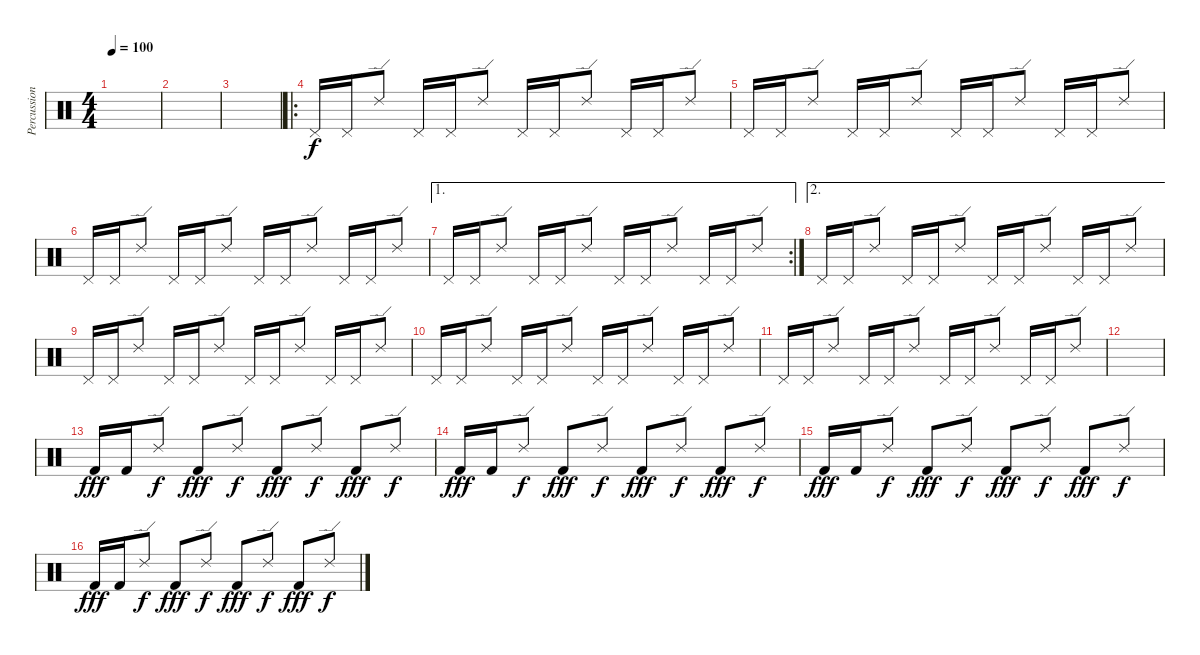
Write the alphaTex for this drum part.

\track ("Percussion" "Percussion") {instrument percussion}
\staff {score}
\articulation defaults
\ts (4 4)
\tempo 100
\clef neutral
\ks c
|
|
|
\ro "Pedal Hi-Hat (hit)".16 "Pedal Hi-Hat (hit)".16 "Ride (edge) 2".8 "Pedal Hi-Hat (hit)".16 "Pedal Hi-Hat (hit)".16 "Ride (edge) 2".8 "Pedal Hi-Hat (hit)".16 "Pedal Hi-Hat (hit)".16 "Ride (edge) 2".8 "Pedal Hi-Hat (hit)".16 "Pedal Hi-Hat (hit)".16 "Ride (edge) 2".8
|
"Pedal Hi-Hat (hit)".16 "Pedal Hi-Hat (hit)".16 "Ride (edge) 2".8 "Pedal Hi-Hat (hit)".16 "Pedal Hi-Hat (hit)".16 "Ride (edge) 2".8 "Pedal Hi-Hat (hit)".16 "Pedal Hi-Hat (hit)".16 "Ride (edge) 2".8 "Pedal Hi-Hat (hit)".16 "Pedal Hi-Hat (hit)".16 "Ride (edge) 2".8 |
"Pedal Hi-Hat (hit)".16 "Pedal Hi-Hat (hit)".16 "Ride (edge) 2".8 "Pedal Hi-Hat (hit)".16 "Pedal Hi-Hat (hit)".16 "Ride (edge) 2".8 "Pedal Hi-Hat (hit)".16 "Pedal Hi-Hat (hit)".16 "Ride (edge) 2".8 "Pedal Hi-Hat (hit)".16 "Pedal Hi-Hat (hit)".16 "Ride (edge) 2".8 |
\ae 1
\rc 2 "Pedal Hi-Hat (hit)".16 "Pedal Hi-Hat (hit)".16 "Ride (edge) 2".8 "Pedal Hi-Hat (hit)".16 "Pedal Hi-Hat (hit)".16 "Ride (edge) 2".8 "Pedal Hi-Hat (hit)".16 "Pedal Hi-Hat (hit)".16 "Ride (edge) 2".8 "Pedal Hi-Hat (hit)".16 "Pedal Hi-Hat (hit)".16 "Ride (edge) 2".8
|
\ae 2 "Pedal Hi-Hat (hit)".16 "Pedal Hi-Hat (hit)".16 "Ride (edge) 2".8 "Pedal Hi-Hat (hit)".16 "Pedal Hi-Hat (hit)".16 "Ride (edge) 2".8 "Pedal Hi-Hat (hit)".16 "Pedal Hi-Hat (hit)".16 "Ride (edge) 2".8 "Pedal Hi-Hat (hit)".16 "Pedal Hi-Hat (hit)".16 "Ride (edge) 2".8
|
"Pedal Hi-Hat (hit)".16 "Pedal Hi-Hat (hit)".16 "Ride (edge) 2".8 "Pedal Hi-Hat (hit)".16 "Pedal Hi-Hat (hit)".16 "Ride (edge) 2".8 "Pedal Hi-Hat (hit)".16 "Pedal Hi-Hat (hit)".16 "Ride (edge) 2".8 "Pedal Hi-Hat (hit)".16 "Pedal Hi-Hat (hit)".16 "Ride (edge) 2".8 |
"Pedal Hi-Hat (hit)".16 "Pedal Hi-Hat (hit)".16 "Ride (edge) 2".8 "Pedal Hi-Hat (hit)".16 "Pedal Hi-Hat (hit)".16 "Ride (edge) 2".8 "Pedal Hi-Hat (hit)".16 "Pedal Hi-Hat (hit)".16 "Ride (edge) 2".8 "Pedal Hi-Hat (hit)".16 "Pedal Hi-Hat (hit)".16 "Ride (edge) 2".8 |
"Pedal Hi-Hat (hit)".16 "Pedal Hi-Hat (hit)".16 "Ride (edge) 2".8 "Pedal Hi-Hat (hit)".16 "Pedal Hi-Hat (hit)".16 "Ride (edge) 2".8 "Pedal Hi-Hat (hit)".16 "Pedal Hi-Hat (hit)".16 "Ride (edge) 2".8 "Pedal Hi-Hat (hit)".16 "Pedal Hi-Hat (hit)".16 "Ride (edge) 2".8 |
|
"Kick (hit) 2".16{dy fff} "Kick (hit) 2".16 "Ride (edge) 2".8{dy f} "Kick (hit) 2".8{dy fff} "Ride (edge) 2".8{dy f} "Kick (hit) 2".8{dy fff} "Ride (edge) 2".8{dy f} "Kick (hit) 2".8{dy fff} "Ride (edge) 2".8{dy f} |
"Kick (hit) 2".16{dy fff} "Kick (hit) 2".16 "Ride (edge) 2".8{dy f} "Kick (hit) 2".8{dy fff} "Ride (edge) 2".8{dy f} "Kick (hit) 2".8{dy fff} "Ride (edge) 2".8{dy f} "Kick (hit) 2".8{dy fff} "Ride (edge) 2".8{dy f} |
"Kick (hit) 2".16{dy fff} "Kick (hit) 2".16 "Ride (edge) 2".8{dy f} "Kick (hit) 2".8{dy fff} "Ride (edge) 2".8{dy f} "Kick (hit) 2".8{dy fff} "Ride (edge) 2".8{dy f} "Kick (hit) 2".8{dy fff} "Ride (edge) 2".8{dy f} |
"Kick (hit) 2".16{dy fff} "Kick (hit) 2".16 "Ride (edge) 2".8{dy f} "Kick (hit) 2".8{dy fff} "Ride (edge) 2".8{dy f} "Kick (hit) 2".8{dy fff} "Ride (edge) 2".8{dy f} "Kick (hit) 2".8{dy fff} "Ride (edge) 2".8{dy f}
